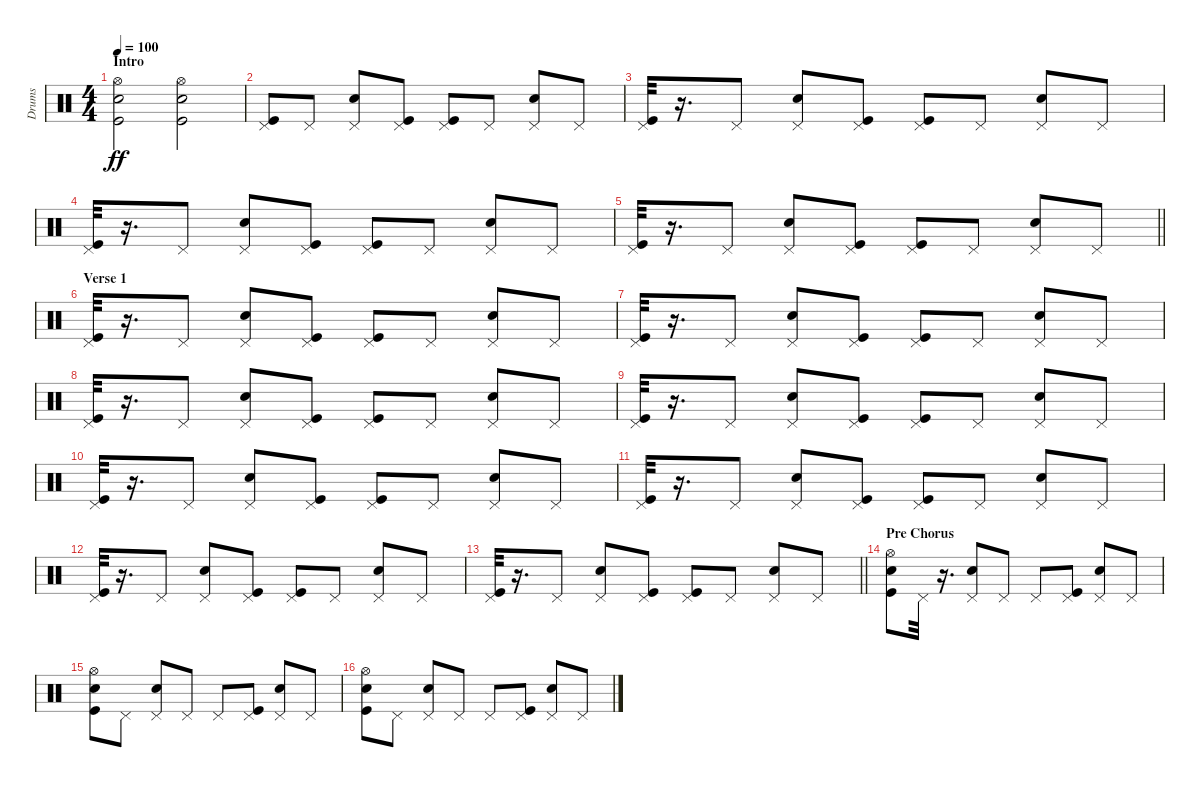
\track ("Drums" "Drums") {instrument percussion}
\staff {score}
\articulation defaults
\ts (4 4)
\section ("" "Intro")
\tempo 100
\clef neutral
\ks c
("Kick (hit)" "Electric Snare (hit)" "Hi-Hat (open)").2{dy ff} ("Kick (hit)" "Electric Snare (hit)" "Hi-Hat (open)").2 |
("Kick (hit)" "Pedal Hi-Hat (hit)").8 "Pedal Hi-Hat (hit)".8 ("Electric Snare (hit)" "Pedal Hi-Hat (hit)").8 ("Kick (hit)" "Pedal Hi-Hat (hit)").8 ("Kick (hit)" "Pedal Hi-Hat (hit)").8 "Pedal Hi-Hat (hit)".8 ("Electric Snare (hit)" "Pedal Hi-Hat (hit)").8 "Pedal Hi-Hat (hit)".8 |
("Kick (hit)" "Pedal Hi-Hat (hit)").32 r.16{d} "Pedal Hi-Hat (hit)".8 ("Electric Snare (hit)" "Pedal Hi-Hat (hit)").8 ("Kick (hit)" "Pedal Hi-Hat (hit)").8 ("Kick (hit)" "Pedal Hi-Hat (hit)").8 "Pedal Hi-Hat (hit)".8 ("Electric Snare (hit)" "Pedal Hi-Hat (hit)").8 "Pedal Hi-Hat (hit)".8 |
("Kick (hit)" "Pedal Hi-Hat (hit)").32 r.16{d} "Pedal Hi-Hat (hit)".8 ("Electric Snare (hit)" "Pedal Hi-Hat (hit)").8 ("Kick (hit)" "Pedal Hi-Hat (hit)").8 ("Kick (hit)" "Pedal Hi-Hat (hit)").8 "Pedal Hi-Hat (hit)".8 ("Electric Snare (hit)" "Pedal Hi-Hat (hit)").8 "Pedal Hi-Hat (hit)".8 |
\barLineRight lightlight
("Kick (hit)" "Pedal Hi-Hat (hit)").32 r.16{d} "Pedal Hi-Hat (hit)".8 ("Electric Snare (hit)" "Pedal Hi-Hat (hit)").8 ("Kick (hit)" "Pedal Hi-Hat (hit)").8 ("Kick (hit)" "Pedal Hi-Hat (hit)").8 "Pedal Hi-Hat (hit)".8 ("Electric Snare (hit)" "Pedal Hi-Hat (hit)").8 "Pedal Hi-Hat (hit)".8 |
\section ("" "Verse 1")
("Kick (hit)" "Pedal Hi-Hat (hit)").32 r.16{d} "Pedal Hi-Hat (hit)".8 ("Electric Snare (hit)" "Pedal Hi-Hat (hit)").8 ("Kick (hit)" "Pedal Hi-Hat (hit)").8 ("Kick (hit)" "Pedal Hi-Hat (hit)").8 "Pedal Hi-Hat (hit)".8 ("Electric Snare (hit)" "Pedal Hi-Hat (hit)").8 "Pedal Hi-Hat (hit)".8 |
("Kick (hit)" "Pedal Hi-Hat (hit)").32 r.16{d} "Pedal Hi-Hat (hit)".8 ("Electric Snare (hit)" "Pedal Hi-Hat (hit)").8 ("Kick (hit)" "Pedal Hi-Hat (hit)").8 ("Kick (hit)" "Pedal Hi-Hat (hit)").8 "Pedal Hi-Hat (hit)".8 ("Electric Snare (hit)" "Pedal Hi-Hat (hit)").8 "Pedal Hi-Hat (hit)".8 |
("Kick (hit)" "Pedal Hi-Hat (hit)").32 r.16{d} "Pedal Hi-Hat (hit)".8 ("Electric Snare (hit)" "Pedal Hi-Hat (hit)").8 ("Kick (hit)" "Pedal Hi-Hat (hit)").8 ("Kick (hit)" "Pedal Hi-Hat (hit)").8 "Pedal Hi-Hat (hit)".8 ("Electric Snare (hit)" "Pedal Hi-Hat (hit)").8 "Pedal Hi-Hat (hit)".8 |
("Kick (hit)" "Pedal Hi-Hat (hit)").32 r.16{d} "Pedal Hi-Hat (hit)".8 ("Electric Snare (hit)" "Pedal Hi-Hat (hit)").8 ("Kick (hit)" "Pedal Hi-Hat (hit)").8 ("Kick (hit)" "Pedal Hi-Hat (hit)").8 "Pedal Hi-Hat (hit)".8 ("Electric Snare (hit)" "Pedal Hi-Hat (hit)").8 "Pedal Hi-Hat (hit)".8 |
("Kick (hit)" "Pedal Hi-Hat (hit)").32 r.16{d} "Pedal Hi-Hat (hit)".8 ("Electric Snare (hit)" "Pedal Hi-Hat (hit)").8 ("Kick (hit)" "Pedal Hi-Hat (hit)").8 ("Kick (hit)" "Pedal Hi-Hat (hit)").8 "Pedal Hi-Hat (hit)".8 ("Electric Snare (hit)" "Pedal Hi-Hat (hit)").8 "Pedal Hi-Hat (hit)".8 |
("Kick (hit)" "Pedal Hi-Hat (hit)").32 r.16{d} "Pedal Hi-Hat (hit)".8 ("Electric Snare (hit)" "Pedal Hi-Hat (hit)").8 ("Kick (hit)" "Pedal Hi-Hat (hit)").8 ("Kick (hit)" "Pedal Hi-Hat (hit)").8 "Pedal Hi-Hat (hit)".8 ("Electric Snare (hit)" "Pedal Hi-Hat (hit)").8 "Pedal Hi-Hat (hit)".8 |
("Kick (hit)" "Pedal Hi-Hat (hit)").32 r.16{d} "Pedal Hi-Hat (hit)".8 ("Electric Snare (hit)" "Pedal Hi-Hat (hit)").8 ("Kick (hit)" "Pedal Hi-Hat (hit)").8 ("Kick (hit)" "Pedal Hi-Hat (hit)").8 "Pedal Hi-Hat (hit)".8 ("Electric Snare (hit)" "Pedal Hi-Hat (hit)").8 "Pedal Hi-Hat (hit)".8 |
\barLineRight lightlight
("Kick (hit)" "Pedal Hi-Hat (hit)").32 r.16{d} "Pedal Hi-Hat (hit)".8 ("Electric Snare (hit)" "Pedal Hi-Hat (hit)").8 ("Kick (hit)" "Pedal Hi-Hat (hit)").8 ("Kick (hit)" "Pedal Hi-Hat (hit)").8 "Pedal Hi-Hat (hit)".8 ("Electric Snare (hit)" "Pedal Hi-Hat (hit)").8 "Pedal Hi-Hat (hit)".8 |
\section ("" "Pre Chorus")
("Kick (hit)" "Electric Snare (hit)" "Hi-Hat (open)").8 "Pedal Hi-Hat (hit)".32 r.16{d} ("Electric Snare (hit)" "Pedal Hi-Hat (hit)").8 "Pedal Hi-Hat (hit)".8 "Pedal Hi-Hat (hit)".8 ("Kick (hit)" "Pedal Hi-Hat (hit)").8 ("Electric Snare (hit)" "Pedal Hi-Hat (hit)").8 "Pedal Hi-Hat (hit)".8 |
("Kick (hit)" "Electric Snare (hit)" "Hi-Hat (open)").8 "Pedal Hi-Hat (hit)".8 ("Electric Snare (hit)" "Pedal Hi-Hat (hit)").8 "Pedal Hi-Hat (hit)".8 "Pedal Hi-Hat (hit)".8 ("Kick (hit)" "Pedal Hi-Hat (hit)").8 ("Electric Snare (hit)" "Pedal Hi-Hat (hit)").8 "Pedal Hi-Hat (hit)".8 |
("Kick (hit)" "Electric Snare (hit)" "Hi-Hat (open)").8 "Pedal Hi-Hat (hit)".8 ("Electric Snare (hit)" "Pedal Hi-Hat (hit)").8 "Pedal Hi-Hat (hit)".8 "Pedal Hi-Hat (hit)".8 ("Kick (hit)" "Pedal Hi-Hat (hit)").8 ("Electric Snare (hit)" "Pedal Hi-Hat (hit)").8 "Pedal Hi-Hat (hit)".8
